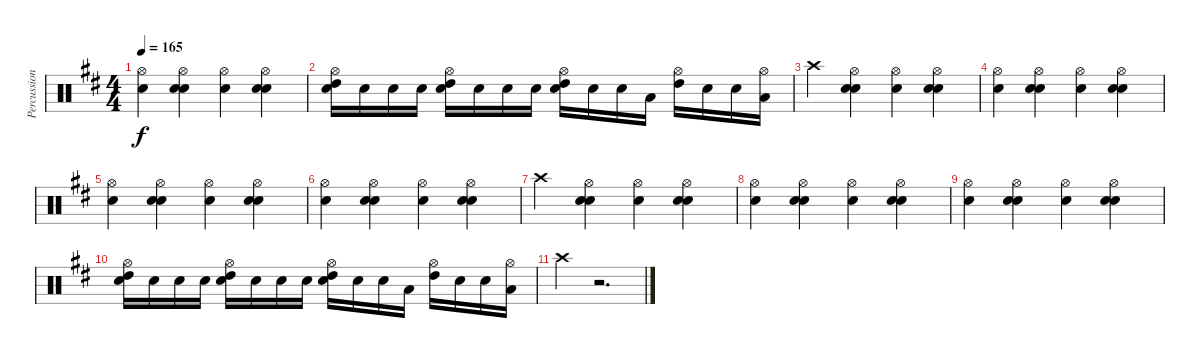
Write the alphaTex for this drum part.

\track ("Percussion" "Percussion") {instrument percussion}
\staff {score}
\articulation defaults
\ts (4 4)
\tempo 165
\clef neutral
\ks d
("Hi-Hat (open)" "Snare (hit) 2").4{dy f} ("Hi-Hat (open)" "Snare (hit) 2" "Electric Snare (hit)").4 ("Hi-Hat (open)" "Snare (hit) 2").4 ("Hi-Hat (open)" "Snare (hit) 2" "Electric Snare (hit)").4 |
("Hi-Hat (open)" "Snare (hit) 2" "High Tom (hit)").16 "Snare (hit) 2".16 "Snare (hit) 2".16 "Snare (hit) 2".16 ("Hi-Hat (open)" "Snare (hit) 2" "High Tom (hit)").16 "Snare (hit) 2".16 "Snare (hit) 2".16 "Snare (hit) 2".16 ("Hi-Hat (open)" "Snare (hit) 2" "High Tom (hit)").16 "Snare (hit) 2".16 "Snare (hit) 2".16 "Low Tom (hit)".16 ("High Tom (hit)" "Hi-Hat (open)").16 "Snare (hit) 2".16 "Snare (hit) 2".16 ("Low Tom (hit)" "Hi-Hat (open)").16 |
"Crash high (hit)".4 ("Hi-Hat (open)" "Snare (hit) 2" "Electric Snare (hit)").4 ("Hi-Hat (open)" "Snare (hit) 2").4 ("Hi-Hat (open)" "Snare (hit) 2" "Electric Snare (hit)").4 |
("Hi-Hat (open)" "Snare (hit) 2").4 ("Hi-Hat (open)" "Snare (hit) 2" "Electric Snare (hit)").4 ("Hi-Hat (open)" "Snare (hit) 2").4 ("Hi-Hat (open)" "Snare (hit) 2" "Electric Snare (hit)").4 |
("Hi-Hat (open)" "Snare (hit) 2").4 ("Hi-Hat (open)" "Snare (hit) 2" "Electric Snare (hit)").4 ("Hi-Hat (open)" "Snare (hit) 2").4 ("Hi-Hat (open)" "Snare (hit) 2" "Electric Snare (hit)").4 |
("Hi-Hat (open)" "Snare (hit) 2").4 ("Hi-Hat (open)" "Snare (hit) 2" "Electric Snare (hit)").4 ("Hi-Hat (open)" "Snare (hit) 2").4 ("Hi-Hat (open)" "Snare (hit) 2" "Electric Snare (hit)").4 |
"Crash high (hit)".4 ("Hi-Hat (open)" "Snare (hit) 2" "Electric Snare (hit)").4 ("Hi-Hat (open)" "Snare (hit) 2").4 ("Hi-Hat (open)" "Snare (hit) 2" "Electric Snare (hit)").4 |
("Hi-Hat (open)" "Snare (hit) 2").4 ("Hi-Hat (open)" "Snare (hit) 2" "Electric Snare (hit)").4 ("Hi-Hat (open)" "Snare (hit) 2").4 ("Hi-Hat (open)" "Snare (hit) 2" "Electric Snare (hit)").4 |
("Hi-Hat (open)" "Snare (hit) 2").4 ("Hi-Hat (open)" "Snare (hit) 2" "Electric Snare (hit)").4 ("Hi-Hat (open)" "Snare (hit) 2").4 ("Hi-Hat (open)" "Snare (hit) 2" "Electric Snare (hit)").4 |
("Hi-Hat (open)" "Snare (hit) 2" "High Tom (hit)").16 "Snare (hit) 2".16 "Snare (hit) 2".16 "Snare (hit) 2".16 ("Hi-Hat (open)" "Snare (hit) 2" "High Tom (hit)").16 "Snare (hit) 2".16 "Snare (hit) 2".16 "Snare (hit) 2".16 ("Hi-Hat (open)" "Snare (hit) 2" "High Tom (hit)").16 "Snare (hit) 2".16 "Snare (hit) 2".16 "Low Tom (hit)".16 ("High Tom (hit)" "Hi-Hat (open)").16 "Snare (hit) 2".16 "Snare (hit) 2".16 ("Low Tom (hit)" "Hi-Hat (open)").16 |
"Crash high (hit)".4 r.2{d}
